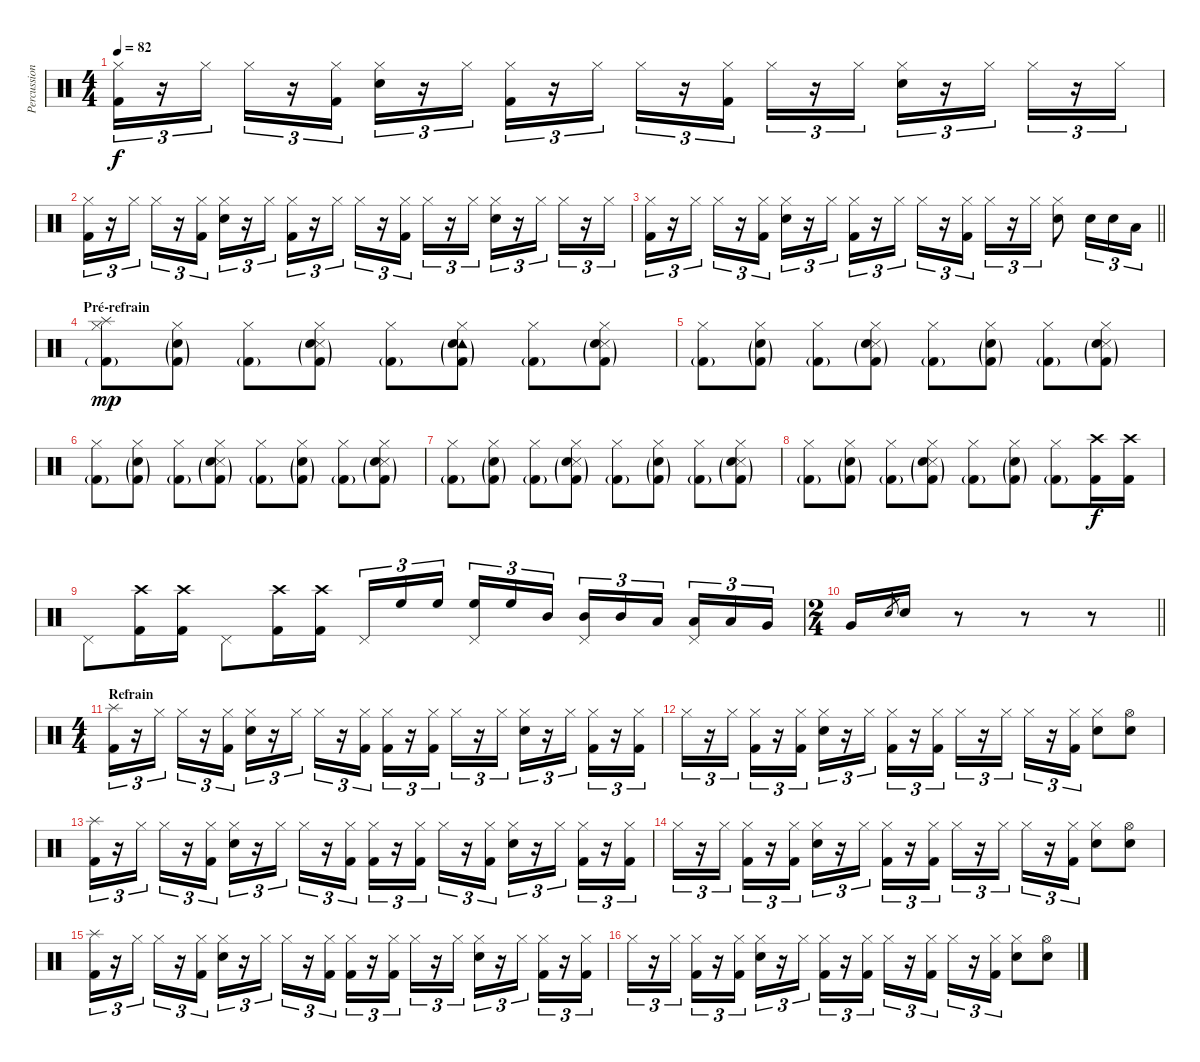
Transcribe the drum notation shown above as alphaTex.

\track ("Percussioni" "Percussion") {instrument percussion}
\staff {score}
\articulation defaults
\ts (4 4)
\tempo 82
\clef neutral
\ks c
("Hi-Hat (closed)" "Kick (hit) 2").16{tu (3 2) dy f} r.16{tu (3 2)} "Hi-Hat (closed)".16{tu (3 2)} "Hi-Hat (closed)".16{tu (3 2)} r.16{tu (3 2)} ("Hi-Hat (closed)" "Kick (hit) 2").16{tu (3 2)} ("Hi-Hat (closed)" "Snare (hit) 2").16{tu (3 2)} r.16{tu (3 2)} "Hi-Hat (closed)".16{tu (3 2)} ("Hi-Hat (closed)" "Kick (hit) 2").16{tu (3 2)} r.16{tu (3 2)} "Hi-Hat (closed)".16{tu (3 2)} "Hi-Hat (closed)".16{tu (3 2)} r.16{tu (3 2)} ("Hi-Hat (closed)" "Kick (hit) 2").16{tu (3 2)} "Hi-Hat (closed)".16{tu (3 2)} r.16{tu (3 2)} "Hi-Hat (closed)".16{tu (3 2)} ("Hi-Hat (closed)" "Snare (hit) 2").16{tu (3 2)} r.16{tu (3 2)} "Hi-Hat (closed)".16{tu (3 2)} "Hi-Hat (closed)".16{tu (3 2)} r.16{tu (3 2)} "Hi-Hat (closed)".16{tu (3 2)} |
("Hi-Hat (closed)" "Kick (hit) 2").16{tu (3 2)} r.16{tu (3 2)} "Hi-Hat (closed)".16{tu (3 2)} "Hi-Hat (closed)".16{tu (3 2)} r.16{tu (3 2)} ("Hi-Hat (closed)" "Kick (hit) 2").16{tu (3 2)} ("Hi-Hat (closed)" "Snare (hit) 2").16{tu (3 2)} r.16{tu (3 2)} "Hi-Hat (closed)".16{tu (3 2)} ("Hi-Hat (closed)" "Kick (hit) 2").16{tu (3 2)} r.16{tu (3 2)} "Hi-Hat (closed)".16{tu (3 2)} "Hi-Hat (closed)".16{tu (3 2)} r.16{tu (3 2)} ("Hi-Hat (closed)" "Kick (hit) 2").16{tu (3 2)} "Hi-Hat (closed)".16{tu (3 2)} r.16{tu (3 2)} "Hi-Hat (closed)".16{tu (3 2)} ("Hi-Hat (closed)" "Snare (hit) 2").16{tu (3 2)} r.16{tu (3 2)} "Hi-Hat (closed)".16{tu (3 2)} "Hi-Hat (closed)".16{tu (3 2)} r.16{tu (3 2)} "Hi-Hat (closed)".16{tu (3 2)} |
\barLineRight lightlight
("Hi-Hat (closed)" "Kick (hit) 2").16{tu (3 2)} r.16{tu (3 2)} "Hi-Hat (closed)".16{tu (3 2)} "Hi-Hat (closed)".16{tu (3 2)} r.16{tu (3 2)} ("Hi-Hat (closed)" "Kick (hit) 2").16{tu (3 2)} ("Hi-Hat (closed)" "Snare (hit) 2").16{tu (3 2)} r.16{tu (3 2)} "Hi-Hat (closed)".16{tu (3 2)} ("Hi-Hat (closed)" "Kick (hit) 2").16{tu (3 2)} r.16{tu (3 2)} "Hi-Hat (closed)".16{tu (3 2)} "Hi-Hat (closed)".16{tu (3 2)} r.16{tu (3 2)} ("Hi-Hat (closed)" "Kick (hit) 2").16{tu (3 2)} "Hi-Hat (closed)".16{tu (3 2)} r.16{tu (3 2)} "Hi-Hat (closed)".16{tu (3 2)} ("Hi-Hat (closed)" "Snare (hit) 2").8 "Snare (hit) 2".16{tu (3 2)} "Snare (hit) 2".16{tu (3 2)} "Low Tom (hit)".16{tu (3 2)} |
\section ("" "Pré-refrain")
("Splash (hit)" "Hi-Hat (closed)" "Kick (hit) 2"{g}).8{dy mp} ("Hi-Hat (closed)" "Snare (hit) 2"{g} "Kick (hit) 2"{g}).8 ("Hi-Hat (closed)" "Kick (hit) 2"{g}).8 ("Snare (side stick) 3" "Hi-Hat (closed)" "Snare (hit) 2"{g} "Kick (hit) 2"{g}).8 ("Hi-Hat (closed)" "Kick (hit) 2"{g}).8 ("Tambourine (hit)" "Hi-Hat (closed)" "Snare (hit) 2"{g} "Kick (hit) 2"{g}).8 ("Hi-Hat (closed)" "Kick (hit) 2"{g}).8 ("Snare (side stick) 3" "Hi-Hat (closed)" "Snare (hit) 2"{g} "Kick (hit) 2"{g}).8 |
("Hi-Hat (closed)" "Kick (hit) 2"{g}).8 ("Hi-Hat (closed)" "Snare (hit) 2"{g} "Kick (hit) 2"{g}).8 ("Hi-Hat (closed)" "Kick (hit) 2"{g}).8 ("Snare (side stick) 3" "Hi-Hat (closed)" "Snare (hit) 2"{g} "Kick (hit) 2"{g}).8 ("Hi-Hat (closed)" "Kick (hit) 2"{g}).8 ("Hi-Hat (closed)" "Snare (hit) 2"{g} "Kick (hit) 2"{g}).8 ("Hi-Hat (closed)" "Kick (hit) 2"{g}).8 ("Snare (side stick) 3" "Hi-Hat (closed)" "Snare (hit) 2"{g} "Kick (hit) 2"{g}).8 |
("Hi-Hat (closed)" "Kick (hit) 2"{g}).8 ("Hi-Hat (closed)" "Snare (hit) 2"{g} "Kick (hit) 2"{g}).8 ("Hi-Hat (closed)" "Kick (hit) 2"{g}).8 ("Snare (side stick) 3" "Hi-Hat (closed)" "Snare (hit) 2"{g} "Kick (hit) 2"{g}).8 ("Hi-Hat (closed)" "Kick (hit) 2"{g}).8 ("Hi-Hat (closed)" "Snare (hit) 2"{g} "Kick (hit) 2"{g}).8 ("Hi-Hat (closed)" "Kick (hit) 2"{g}).8 ("Snare (side stick) 3" "Hi-Hat (closed)" "Snare (hit) 2"{g} "Kick (hit) 2"{g}).8 |
("Hi-Hat (closed)" "Kick (hit) 2"{g}).8 ("Hi-Hat (closed)" "Snare (hit) 2"{g} "Kick (hit) 2"{g}).8 ("Hi-Hat (closed)" "Kick (hit) 2"{g}).8 ("Snare (side stick) 3" "Hi-Hat (closed)" "Snare (hit) 2"{g} "Kick (hit) 2"{g}).8 ("Hi-Hat (closed)" "Kick (hit) 2"{g}).8 ("Hi-Hat (closed)" "Snare (hit) 2"{g} "Kick (hit) 2"{g}).8 ("Hi-Hat (closed)" "Kick (hit) 2"{g}).8 ("Snare (side stick) 3" "Hi-Hat (closed)" "Snare (hit) 2"{g} "Kick (hit) 2"{g}).8 |
("Hi-Hat (closed)" "Kick (hit) 2"{g}).8 ("Hi-Hat (closed)" "Snare (hit) 2"{g} "Kick (hit) 2"{g}).8 ("Hi-Hat (closed)" "Kick (hit) 2"{g}).8 ("Snare (side stick) 3" "Hi-Hat (closed)" "Snare (hit) 2"{g} "Kick (hit) 2"{g}).8 ("Hi-Hat (closed)" "Kick (hit) 2"{g}).8 ("Hi-Hat (closed)" "Snare (hit) 2"{g} "Kick (hit) 2"{g}).8 ("Hi-Hat (closed)" "Kick (hit) 2"{g}).8 ("Crash high (hit)" "Kick (hit) 2").16{dy f} ("Crash high (hit)" "Kick (hit) 2").16 |
"Pedal Hi-Hat (hit)".8 ("Crash high (hit)" "Kick (hit) 2").16 ("Crash high (hit)" "Kick (hit) 2").16 "Pedal Hi-Hat (hit)".8 ("Crash high (hit)" "Kick (hit) 2").16 ("Crash high (hit)" "Kick (hit) 2").16 "Pedal Hi-Hat (hit)".16{tu (3 2)} "High Floor Tom (hit)".16{tu (3 2)} "High Floor Tom (hit)".16{tu (3 2)} ("Pedal Hi-Hat (hit)" "High Floor Tom (hit)").16{tu (3 2)} "High Floor Tom (hit)".16{tu (3 2)} "Mid Tom (hit)".16{tu (3 2)} ("Pedal Hi-Hat (hit)" "Mid Tom (hit)").16{tu (3 2)} "Mid Tom (hit)".16{tu (3 2)} "Low Tom (hit)".16{tu (3 2)} ("Pedal Hi-Hat (hit)" "Low Tom (hit)").16{tu (3 2)} "Low Tom (hit)".16{tu (3 2)} "Very Low Tom (hit)".16{tu (3 2)} |
\ts (2 4)
\barLineRight lightlight "Very Low Tom (hit)".16 "Snare (hit) 2".8{gr} "Snare (hit) 2".16
r.8 r.8 r.8 |
\ts (4 4)
\section ("" "Refrain")
("Splash (hit)" "Kick (hit) 2").16{tu (3 2)} r.16{tu (3 2)} "Hi-Hat (closed)".16{tu (3 2)} "Hi-Hat (closed)".16{tu (3 2)} r.16{tu (3 2)} ("Hi-Hat (closed)" "Kick (hit) 2").16{tu (3 2)} ("Hi-Hat (closed)" "Snare (hit) 2").16{tu (3 2)} r.16{tu (3 2)} "Hi-Hat (closed)".16{tu (3 2)} "Hi-Hat (closed)".16{tu (3 2)} r.16{tu (3 2)} ("Hi-Hat (closed)" "Kick (hit) 2").16{tu (3 2)} ("Hi-Hat (closed)" "Kick (hit) 2").16{tu (3 2)} r.16{tu (3 2)} ("Hi-Hat (closed)" "Kick (hit) 2").16{tu (3 2)} "Hi-Hat (closed)".16{tu (3 2)} r.16{tu (3 2)} "Hi-Hat (closed)".16{tu (3 2)} ("Hi-Hat (closed)" "Snare (hit) 2").16{tu (3 2)} r.16{tu (3 2)} "Hi-Hat (closed)".16{tu (3 2)} ("Hi-Hat (closed)" "Kick (hit) 2").16{tu (3 2)} r.16{tu (3 2)} ("Hi-Hat (closed)" "Kick (hit) 2").16{tu (3 2)} |
"Hi-Hat (closed)".16{tu (3 2)} r.16{tu (3 2)} "Hi-Hat (closed)".16{tu (3 2)} ("Hi-Hat (closed)" "Kick (hit) 2").16{tu (3 2)} r.16{tu (3 2)} ("Hi-Hat (closed)" "Kick (hit) 2").16{tu (3 2)} ("Hi-Hat (closed)" "Snare (hit) 2").16{tu (3 2)} r.16{tu (3 2)} "Hi-Hat (closed)".16{tu (3 2)} ("Hi-Hat (closed)" "Kick (hit) 2").16{tu (3 2)} r.16{tu (3 2)} ("Hi-Hat (closed)" "Kick (hit) 2").16{tu (3 2)} "Hi-Hat (closed)".16{tu (3 2)} r.16{tu (3 2)} "Hi-Hat (closed)".16{tu (3 2)} "Hi-Hat (closed)".16{tu (3 2)} r.16{tu (3 2)} ("Hi-Hat (closed)" "Kick (hit) 2").16{tu (3 2)} ("Hi-Hat (closed)" "Snare (hit) 2").8 ("Hi-Hat (open)" "Snare (hit) 2").8 |
("Splash (hit)" "Kick (hit) 2").16{tu (3 2)} r.16{tu (3 2)} "Hi-Hat (closed)".16{tu (3 2)} "Hi-Hat (closed)".16{tu (3 2)} r.16{tu (3 2)} ("Hi-Hat (closed)" "Kick (hit) 2").16{tu (3 2)} ("Hi-Hat (closed)" "Snare (hit) 2").16{tu (3 2)} r.16{tu (3 2)} "Hi-Hat (closed)".16{tu (3 2)} "Hi-Hat (closed)".16{tu (3 2)} r.16{tu (3 2)} ("Hi-Hat (closed)" "Kick (hit) 2").16{tu (3 2)} ("Hi-Hat (closed)" "Kick (hit) 2").16{tu (3 2)} r.16{tu (3 2)} ("Hi-Hat (closed)" "Kick (hit) 2").16{tu (3 2)} "Hi-Hat (closed)".16{tu (3 2)} r.16{tu (3 2)} ("Hi-Hat (closed)" "Kick (hit) 2").16{tu (3 2)} ("Hi-Hat (closed)" "Snare (hit) 2").16{tu (3 2)} r.16{tu (3 2)} "Hi-Hat (closed)".16{tu (3 2)} ("Hi-Hat (closed)" "Kick (hit) 2").16{tu (3 2)} r.16{tu (3 2)} ("Hi-Hat (closed)" "Kick (hit) 2").16{tu (3 2)} |
"Hi-Hat (closed)".16{tu (3 2)} r.16{tu (3 2)} "Hi-Hat (closed)".16{tu (3 2)} ("Hi-Hat (closed)" "Kick (hit) 2").16{tu (3 2)} r.16{tu (3 2)} ("Hi-Hat (closed)" "Kick (hit) 2").16{tu (3 2)} ("Hi-Hat (closed)" "Snare (hit) 2").16{tu (3 2)} r.16{tu (3 2)} "Hi-Hat (closed)".16{tu (3 2)} ("Hi-Hat (closed)" "Kick (hit) 2").16{tu (3 2)} r.16{tu (3 2)} ("Hi-Hat (closed)" "Kick (hit) 2").16{tu (3 2)} "Hi-Hat (closed)".16{tu (3 2)} r.16{tu (3 2)} "Hi-Hat (closed)".16{tu (3 2)} "Hi-Hat (closed)".16{tu (3 2)} r.16{tu (3 2)} ("Hi-Hat (closed)" "Kick (hit) 2").16{tu (3 2)} ("Hi-Hat (closed)" "Snare (hit) 2").8 ("Hi-Hat (open)" "Snare (hit) 2").8 |
("Splash (hit)" "Kick (hit) 2").16{tu (3 2)} r.16{tu (3 2)} "Hi-Hat (closed)".16{tu (3 2)} "Hi-Hat (closed)".16{tu (3 2)} r.16{tu (3 2)} ("Hi-Hat (closed)" "Kick (hit) 2").16{tu (3 2)} ("Hi-Hat (closed)" "Snare (hit) 2").16{tu (3 2)} r.16{tu (3 2)} "Hi-Hat (closed)".16{tu (3 2)} "Hi-Hat (closed)".16{tu (3 2)} r.16{tu (3 2)} ("Hi-Hat (closed)" "Kick (hit) 2").16{tu (3 2)} ("Hi-Hat (closed)" "Kick (hit) 2").16{tu (3 2)} r.16{tu (3 2)} ("Hi-Hat (closed)" "Kick (hit) 2").16{tu (3 2)} "Hi-Hat (closed)".16{tu (3 2)} r.16{tu (3 2)} "Hi-Hat (closed)".16{tu (3 2)} ("Hi-Hat (closed)" "Snare (hit) 2").16{tu (3 2)} r.16{tu (3 2)} "Hi-Hat (closed)".16{tu (3 2)} ("Hi-Hat (closed)" "Kick (hit) 2").16{tu (3 2)} r.16{tu (3 2)} ("Hi-Hat (closed)" "Kick (hit) 2").16{tu (3 2)} |
"Hi-Hat (closed)".16{tu (3 2)} r.16{tu (3 2)} "Hi-Hat (closed)".16{tu (3 2)} ("Hi-Hat (closed)" "Kick (hit) 2").16{tu (3 2)} r.16{tu (3 2)} ("Hi-Hat (closed)" "Kick (hit) 2").16{tu (3 2)} ("Hi-Hat (closed)" "Snare (hit) 2").16{tu (3 2)} r.16{tu (3 2)} "Hi-Hat (closed)".16{tu (3 2)} ("Hi-Hat (closed)" "Kick (hit) 2").16{tu (3 2)} r.16{tu (3 2)} ("Hi-Hat (closed)" "Kick (hit) 2").16{tu (3 2)} "Hi-Hat (closed)".16{tu (3 2)} r.16{tu (3 2)} ("Hi-Hat (closed)" "Kick (hit) 2").16{tu (3 2)} "Hi-Hat (closed)".16{tu (3 2)} r.16{tu (3 2)} ("Hi-Hat (closed)" "Kick (hit) 2").16{tu (3 2)} ("Hi-Hat (closed)" "Snare (hit) 2").8 ("Hi-Hat (open)" "Snare (hit) 2").8
